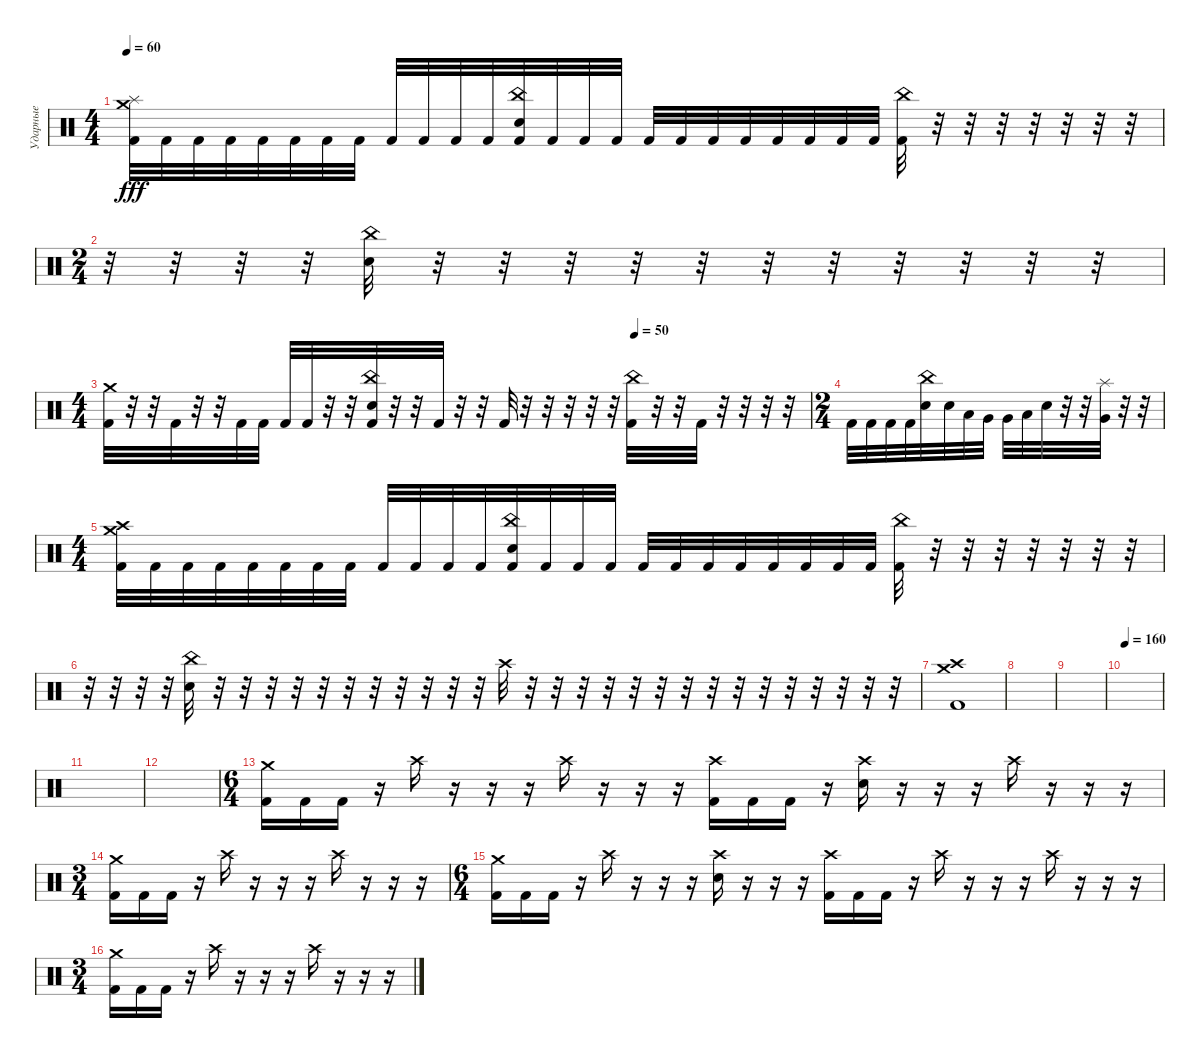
\track ("Ударные" "Ударные") {instrument percussion}
\staff {score}
\articulation defaults
\ts (4 4)
\tempo 60
\clef neutral
\ks c
("Crash medium (hit)" "Splash (hit)" "Kick (hit) 2").32{dy fff} "Kick (hit) 2".32 "Kick (hit) 2".32 "Kick (hit) 2".32 "Kick (hit) 2".32 "Kick (hit) 2".32 "Kick (hit) 2".32 "Kick (hit) 2".32 "Kick (hit) 2".32 "Kick (hit) 2".32 "Kick (hit) 2".32 "Kick (hit) 2".32 ("China (hit)" "Snare (hit) 2" "Kick (hit) 2").32 "Kick (hit) 2".32 "Kick (hit) 2".32 "Kick (hit) 2".32 "Kick (hit) 2".32 "Kick (hit) 2".32 "Kick (hit) 2".32 "Kick (hit) 2".32 "Kick (hit) 2".32 "Kick (hit) 2".32 "Kick (hit) 2".32 "Kick (hit) 2".32 ("China (hit)" "Kick (hit) 2").32 r.32 r.32 r.32 r.32 r.32 r.32 r.32 |
\ts (2 4)
r.32 r.32 r.32 r.32 ("China (hit)" "Snare (hit) 2").32 r.32 r.32 r.32 r.32 r.32 r.32 r.32 r.32 r.32 r.32 r.32 |
\ts (4 4)
\tempo (50 0.75)
("Crash medium (hit)" "Kick (hit) 2").32 r.32 r.32 "Kick (hit) 2".32 r.32 r.32 "Kick (hit) 2".32 "Kick (hit) 2".32 "Kick (hit) 2".32 "Kick (hit) 2".32 r.32 r.32 ("China (hit)" "Snare (hit) 2" "Kick (hit) 2").32 r.32 r.32 "Kick (hit) 2".32 r.32 r.32 "Kick (hit) 2".32 r.32 r.32 r.32 r.32 r.32 ("China (hit)" "Kick (hit) 2").32 r.32 r.32 "Kick (hit) 2".32 r.32 r.32 r.32 r.32 |
\ts (2 4)
"Kick (hit) 2".32 "Kick (hit) 2".32 "Kick (hit) 2".32 "Kick (hit) 2".32 ("China (hit)" "Snare (hit) 2").32 "Snare (hit) 2".32 "Low Tom (hit)".32 "Very Low Tom (hit)".32 "Very Low Tom (hit)".32 "Low Floor Tom (hit)".32 "Snare (hit) 2".32 r.32 r.32 ("Splash (hit)" "Very Low Tom (hit)").32 r.32 r.32 |
\ts (4 4)
("Crash medium (hit)" "Crash high (hit)" "Kick (hit) 2").32 "Kick (hit) 2".32 "Kick (hit) 2".32 "Kick (hit) 2".32 "Kick (hit) 2".32 "Kick (hit) 2".32 "Kick (hit) 2".32 "Kick (hit) 2".32 "Kick (hit) 2".32 "Kick (hit) 2".32 "Kick (hit) 2".32 "Kick (hit) 2".32 ("China (hit)" "Snare (hit) 2" "Kick (hit) 2").32 "Kick (hit) 2".32 "Kick (hit) 2".32 "Kick (hit) 2".32 "Kick (hit) 2".32 "Kick (hit) 2".32 "Kick (hit) 2".32 "Kick (hit) 2".32 "Kick (hit) 2".32 "Kick (hit) 2".32 "Kick (hit) 2".32 "Kick (hit) 2".32 ("China (hit)" "Kick (hit) 2").32 r.32 r.32 r.32 r.32 r.32 r.32 r.32 |
r.32 r.32 r.32 r.32 ("China (hit)" "Snare (hit) 2").32 r.32 r.32 r.32 r.32 r.32 r.32 r.32 r.32 r.32 r.32 r.32 "Crash high (hit)".32 r.32 r.32 r.32 r.32 r.32 r.32 r.32 r.32 r.32 r.32 r.32 r.32 r.32 r.32 r.32 |
("Crash medium (hit)" "Crash high (hit)" "Kick (hit) 2").1 |
|
|
\tempo 160
|
|
|
\ts (6 4)
("Crash medium (hit)" "Kick (hit) 2").16 "Kick (hit) 2".16 "Kick (hit) 2".16 r.16 "Crash high (hit)".16 r.16 r.16 r.16 "Crash high (hit)".16 r.16 r.16 r.16 ("Crash high (hit)" "Kick (hit) 2").16 "Kick (hit) 2".16 "Kick (hit) 2".16 r.16 ("Crash high (hit)" "Snare (hit) 2").16 r.16 r.16 r.16 "Crash high (hit)".16 r.16 r.16 r.16 |
\ts (3 4)
("Crash medium (hit)" "Kick (hit) 2").16 "Kick (hit) 2".16 "Kick (hit) 2".16 r.16 "Crash high (hit)".16 r.16 r.16 r.16 "Crash high (hit)".16 r.16 r.16 r.16 |
\ts (6 4)
("Crash medium (hit)" "Kick (hit) 2").16 "Kick (hit) 2".16 "Kick (hit) 2".16 r.16 "Crash high (hit)".16 r.16 r.16 r.16 ("Crash high (hit)" "Snare (hit) 2").16 r.16 r.16 r.16 ("Crash high (hit)" "Kick (hit) 2").16 "Kick (hit) 2".16 "Kick (hit) 2".16 r.16 "Crash high (hit)".16 r.16 r.16 r.16 "Crash high (hit)".16 r.16 r.16 r.16 |
\ts (3 4)
("Crash medium (hit)" "Kick (hit) 2").16 "Kick (hit) 2".16 "Kick (hit) 2".16 r.16 "Crash high (hit)".16 r.16 r.16 r.16 "Crash high (hit)".16 r.16 r.16 r.16
